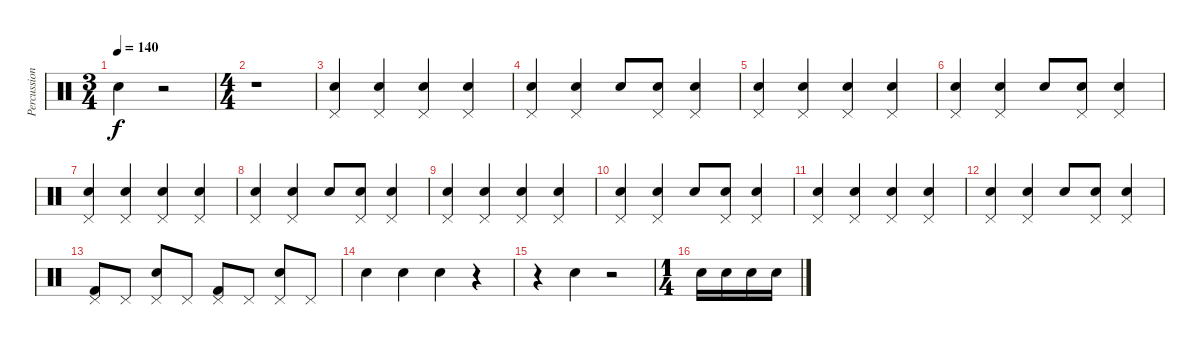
\track ("Percussions" "Percussion") {instrument percussion}
\staff {score}
\articulation defaults
\ts (3 4)
\tempo 140
\clef neutral
\ks c "Electric Snare (hit)".4{dy f}
r.2 |
\ts (4 4)
r.1 |
("Pedal Hi-Hat (hit)" "Electric Snare (hit)").4 ("Pedal Hi-Hat (hit)" "Electric Snare (hit)").4 ("Pedal Hi-Hat (hit)" "Electric Snare (hit)").4 ("Pedal Hi-Hat (hit)" "Electric Snare (hit)").4 |
("Pedal Hi-Hat (hit)" "Electric Snare (hit)").4 ("Pedal Hi-Hat (hit)" "Electric Snare (hit)").4 "Electric Snare (hit)".8 ("Pedal Hi-Hat (hit)" "Electric Snare (hit)").8 ("Pedal Hi-Hat (hit)" "Electric Snare (hit)").4 |
("Pedal Hi-Hat (hit)" "Electric Snare (hit)").4 ("Pedal Hi-Hat (hit)" "Electric Snare (hit)").4 ("Pedal Hi-Hat (hit)" "Electric Snare (hit)").4 ("Pedal Hi-Hat (hit)" "Electric Snare (hit)").4 |
("Pedal Hi-Hat (hit)" "Electric Snare (hit)").4 ("Pedal Hi-Hat (hit)" "Electric Snare (hit)").4 "Electric Snare (hit)".8 ("Pedal Hi-Hat (hit)" "Electric Snare (hit)").8 ("Pedal Hi-Hat (hit)" "Electric Snare (hit)").4 |
("Pedal Hi-Hat (hit)" "Electric Snare (hit)").4 ("Pedal Hi-Hat (hit)" "Electric Snare (hit)").4 ("Pedal Hi-Hat (hit)" "Electric Snare (hit)").4 ("Pedal Hi-Hat (hit)" "Electric Snare (hit)").4 |
("Pedal Hi-Hat (hit)" "Electric Snare (hit)").4 ("Pedal Hi-Hat (hit)" "Electric Snare (hit)").4 "Electric Snare (hit)".8 ("Pedal Hi-Hat (hit)" "Electric Snare (hit)").8 ("Pedal Hi-Hat (hit)" "Electric Snare (hit)").4 |
("Pedal Hi-Hat (hit)" "Electric Snare (hit)").4 ("Pedal Hi-Hat (hit)" "Electric Snare (hit)").4 ("Pedal Hi-Hat (hit)" "Electric Snare (hit)").4 ("Pedal Hi-Hat (hit)" "Electric Snare (hit)").4 |
("Pedal Hi-Hat (hit)" "Electric Snare (hit)").4 ("Pedal Hi-Hat (hit)" "Electric Snare (hit)").4 "Electric Snare (hit)".8 ("Pedal Hi-Hat (hit)" "Electric Snare (hit)").8 ("Pedal Hi-Hat (hit)" "Electric Snare (hit)").4 |
("Pedal Hi-Hat (hit)" "Electric Snare (hit)").4 ("Pedal Hi-Hat (hit)" "Electric Snare (hit)").4 ("Pedal Hi-Hat (hit)" "Electric Snare (hit)").4 ("Pedal Hi-Hat (hit)" "Electric Snare (hit)").4 |
("Pedal Hi-Hat (hit)" "Electric Snare (hit)").4 ("Pedal Hi-Hat (hit)" "Electric Snare (hit)").4 "Electric Snare (hit)".8 ("Pedal Hi-Hat (hit)" "Electric Snare (hit)").8 ("Pedal Hi-Hat (hit)" "Electric Snare (hit)").4 |
("Pedal Hi-Hat (hit)" "Kick (hit) 2").8 "Pedal Hi-Hat (hit)".8 ("Pedal Hi-Hat (hit)" "Electric Snare (hit)").8 "Pedal Hi-Hat (hit)".8 ("Pedal Hi-Hat (hit)" "Kick (hit) 2").8 "Pedal Hi-Hat (hit)".8 ("Pedal Hi-Hat (hit)" "Electric Snare (hit)").8 "Pedal Hi-Hat (hit)".8 |
"Electric Snare (hit)".4 "Electric Snare (hit)".4 "Electric Snare (hit)".4 r.4 |
r.4 "Electric Snare (hit)".4 r.2 |
\ts (1 4)
"Electric Snare (hit)".16 "Electric Snare (hit)".16 "Electric Snare (hit)".16 "Electric Snare (hit)".16
